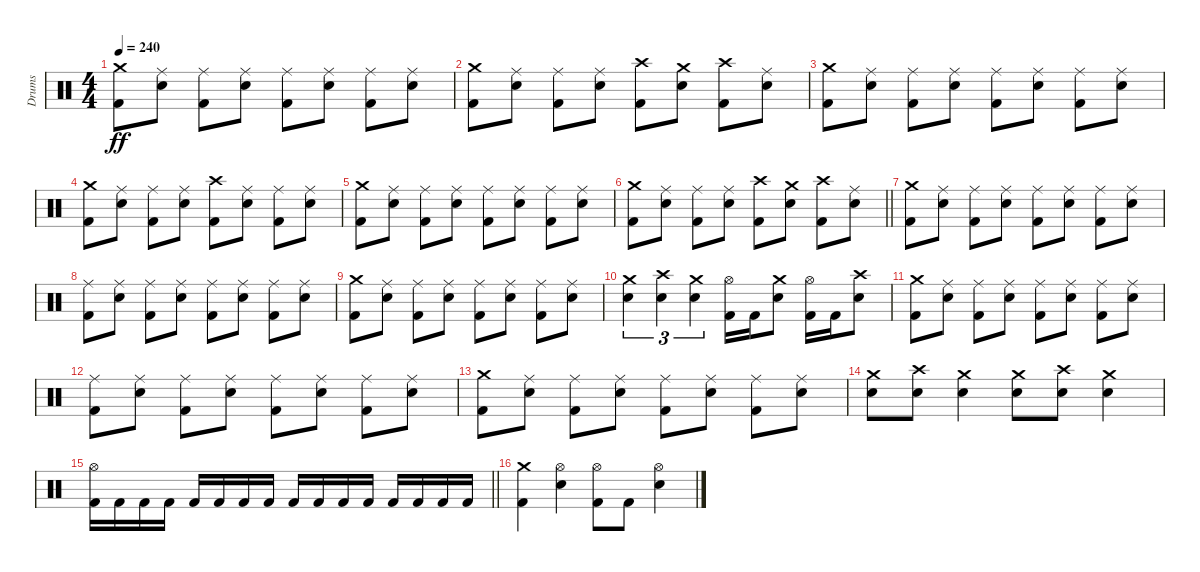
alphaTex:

\track ("Drums" "Drums") {instrument percussion}
\staff {score}
\articulation defaults
\ts (4 4)
\tempo 240
\clef neutral
\ks c
("Crash medium (hit)" "Kick (hit) 2").8{dy ff} ("Ride (middle)" "Snare (hit) 2").8 ("Ride (middle)" "Kick (hit) 2").8 ("Ride (middle)" "Snare (hit) 2").8 ("Ride (middle)" "Kick (hit) 2").8 ("Ride (middle)" "Snare (hit) 2").8 ("Ride (middle)" "Kick (hit) 2").8 ("Ride (middle)" "Snare (hit) 2").8 |
("Crash medium (hit)" "Kick (hit) 2").8 ("Ride (middle)" "Snare (hit) 2").8 ("Ride (middle)" "Kick (hit) 2").8 ("Ride (middle)" "Snare (hit) 2").8 ("Crash high (hit)" "Kick (hit) 2").8 ("Crash medium (hit)" "Snare (hit) 2").8 ("Crash high (hit)" "Kick (hit) 2").8 ("Ride (middle)" "Snare (hit) 2").8 |
("Crash medium (hit)" "Kick (hit) 2").8 ("Ride (middle)" "Snare (hit) 2").8 ("Ride (middle)" "Kick (hit) 2").8 ("Ride (middle)" "Snare (hit) 2").8 ("Ride (middle)" "Kick (hit) 2").8 ("Ride (middle)" "Snare (hit) 2").8 ("Ride (middle)" "Kick (hit) 2").8 ("Ride (middle)" "Snare (hit) 2").8 |
("Crash medium (hit)" "Kick (hit) 2").8 ("Ride (middle)" "Snare (hit) 2").8 ("Ride (middle)" "Kick (hit) 2").8 ("Ride (middle)" "Snare (hit) 2").8 ("Crash high (hit)" "Kick (hit) 2").8 ("Ride (middle)" "Snare (hit) 2").8 ("Ride (middle)" "Kick (hit) 2").8 ("Ride (middle)" "Snare (hit) 2").8 |
("Crash medium (hit)" "Kick (hit) 2").8 ("Ride (middle)" "Snare (hit) 2").8 ("Ride (middle)" "Kick (hit) 2").8 ("Ride (middle)" "Snare (hit) 2").8 ("Ride (middle)" "Kick (hit) 2").8 ("Ride (middle)" "Snare (hit) 2").8 ("Ride (middle)" "Kick (hit) 2").8 ("Ride (middle)" "Snare (hit) 2").8 |
\barLineRight lightlight
("Crash medium (hit)" "Kick (hit) 2").8 ("Ride (middle)" "Snare (hit) 2").8 ("Ride (middle)" "Kick (hit) 2").8 ("Ride (middle)" "Snare (hit) 2").8 ("Crash high (hit)" "Kick (hit) 2").8 ("Crash medium (hit)" "Snare (hit) 2").8 ("Crash high (hit)" "Kick (hit) 2").8 ("Ride (middle)" "Snare (hit) 2").8 |
("Crash medium (hit)" "Kick (hit) 2").8 ("Ride (middle)" "Snare (hit) 2").8 ("Ride (middle)" "Kick (hit) 2").8 ("Ride (middle)" "Snare (hit) 2").8 ("Ride (middle)" "Kick (hit) 2").8 ("Ride (middle)" "Snare (hit) 2").8 ("Ride (middle)" "Kick (hit) 2").8 ("Ride (middle)" "Snare (hit) 2").8 |
("Ride (middle)" "Kick (hit) 2").8 ("Ride (middle)" "Snare (hit) 2").8 ("Ride (middle)" "Kick (hit) 2").8 ("Ride (middle)" "Snare (hit) 2").8 ("Ride (middle)" "Kick (hit) 2").8 ("Ride (middle)" "Snare (hit) 2").8 ("Ride (middle)" "Kick (hit) 2").8 ("Ride (middle)" "Snare (hit) 2").8 |
("Crash medium (hit)" "Kick (hit) 2").8 ("Ride (middle)" "Snare (hit) 2").8 ("Ride (middle)" "Kick (hit) 2").8 ("Ride (middle)" "Snare (hit) 2").8 ("Ride (middle)" "Kick (hit) 2").8 ("Ride (middle)" "Snare (hit) 2").8 ("Ride (middle)" "Kick (hit) 2").8 ("Ride (middle)" "Snare (hit) 2").8 |
("Crash medium (hit)" "Snare (hit) 2").4{tu (3 2)} ("Crash high (hit)" "Snare (hit) 2").4{tu (3 2)} ("Crash medium (hit)" "Snare (hit) 2").4{tu (3 2)} ("Hi-Hat (open)" "Kick (hit) 2").16 "Kick (hit) 2".16 ("Crash medium (hit)" "Snare (hit) 2").8 ("Hi-Hat (open)" "Kick (hit) 2").16 "Kick (hit) 2".16 ("Crash high (hit)" "Snare (hit) 2").8 |
("Crash medium (hit)" "Kick (hit) 2").8 ("Ride (middle)" "Snare (hit) 2").8 ("Ride (middle)" "Kick (hit) 2").8 ("Ride (middle)" "Snare (hit) 2").8 ("Ride (middle)" "Kick (hit) 2").8 ("Ride (middle)" "Snare (hit) 2").8 ("Ride (middle)" "Kick (hit) 2").8 ("Ride (middle)" "Snare (hit) 2").8 |
("Ride (middle)" "Kick (hit) 2").8 ("Ride (middle)" "Snare (hit) 2").8 ("Ride (middle)" "Kick (hit) 2").8 ("Ride (middle)" "Snare (hit) 2").8 ("Ride (middle)" "Kick (hit) 2").8 ("Ride (middle)" "Snare (hit) 2").8 ("Ride (middle)" "Kick (hit) 2").8 ("Ride (middle)" "Snare (hit) 2").8 |
("Crash medium (hit)" "Kick (hit) 2").8 ("Ride (middle)" "Snare (hit) 2").8 ("Ride (middle)" "Kick (hit) 2").8 ("Ride (middle)" "Snare (hit) 2").8 ("Ride (middle)" "Kick (hit) 2").8 ("Ride (middle)" "Snare (hit) 2").8 ("Ride (middle)" "Kick (hit) 2").8 ("Ride (middle)" "Snare (hit) 2").8 |
("Crash medium (hit)" "Snare (hit) 2").8 ("Crash high (hit)" "Snare (hit) 2").8 ("Crash medium (hit)" "Snare (hit) 2").4 ("Crash medium (hit)" "Snare (hit) 2").8 ("Crash high (hit)" "Snare (hit) 2").8 ("Crash medium (hit)" "Snare (hit) 2").4 |
\barLineRight lightlight
("Hi-Hat (open)" "Kick (hit) 2").16 "Kick (hit) 2".16 "Kick (hit) 2".16 "Kick (hit) 2".16 "Kick (hit) 2".16 "Kick (hit) 2".16 "Kick (hit) 2".16 "Kick (hit) 2".16 "Kick (hit) 2".16 "Kick (hit) 2".16 "Kick (hit) 2".16 "Kick (hit) 2".16 "Kick (hit) 2".16 "Kick (hit) 2".16 "Kick (hit) 2".16 "Kick (hit) 2".16 |
("Crash medium (hit)" "Kick (hit) 2").4 ("Hi-Hat (open)" "Snare (hit) 2").4 ("Hi-Hat (open)" "Kick (hit) 2").8 "Kick (hit) 2".8 ("Hi-Hat (open)" "Snare (hit) 2").4
